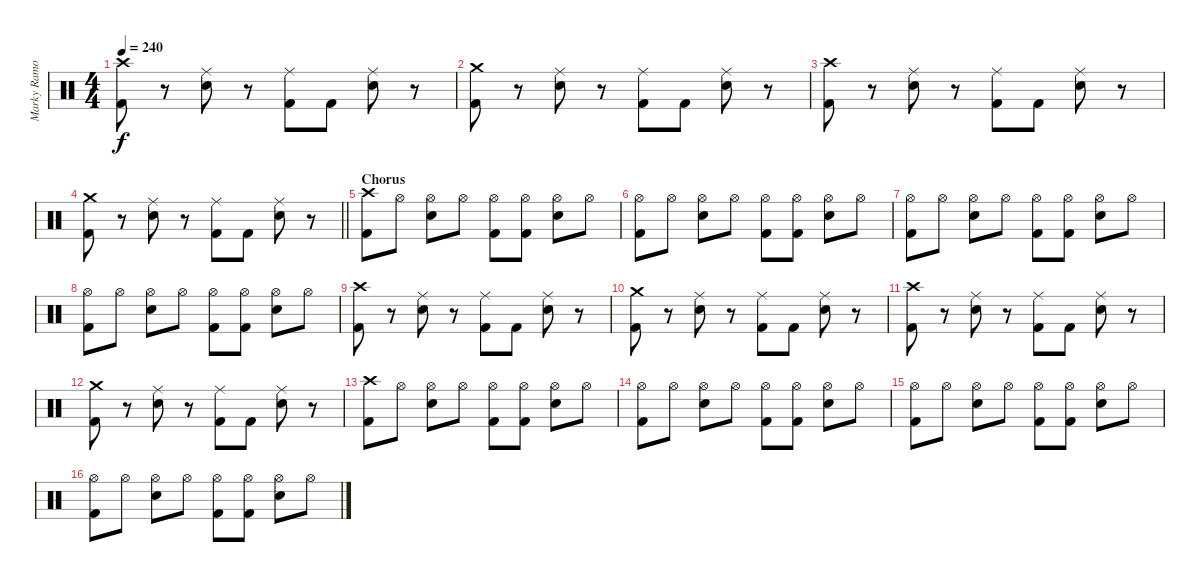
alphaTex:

\track ("Marky Ramone" "Marky Ramo") {instrument percussion}
\staff {score}
\articulation defaults
\ts (4 4)
\tempo 240
\clef neutral
\ks c
("Kick (hit) 2" "Crash high (hit)").8{dy f} r.8 ("Electric Snare (hit)" "Ride (middle)").8 r.8 ("Kick (hit) 2" "Ride (middle)").8 "Kick (hit) 2".8 ("Electric Snare (hit)" "Ride (middle)").8 r.8 |
("Kick (hit) 2" "Crash medium (hit)").8 r.8 ("Electric Snare (hit)" "Ride (middle)").8 r.8 ("Kick (hit) 2" "Ride (middle)").8 "Kick (hit) 2".8 ("Electric Snare (hit)" "Ride (middle)").8 r.8 |
("Kick (hit) 2" "Crash high (hit)").8 r.8 ("Electric Snare (hit)" "Ride (middle)").8 r.8 ("Kick (hit) 2" "Ride (middle)").8 "Kick (hit) 2".8 ("Electric Snare (hit)" "Ride (middle)").8 r.8 |
\barLineRight lightlight
("Kick (hit) 2" "Crash medium (hit)").8 r.8 ("Electric Snare (hit)" "Ride (middle)").8 r.8 ("Kick (hit) 2" "Ride (middle)").8 "Kick (hit) 2".8 ("Electric Snare (hit)" "Ride (middle)").8 r.8 |
\section ("" "Chorus")
("Kick (hit) 2" "Crash high (hit)").8 "Hi-Hat (open)".8 ("Electric Snare (hit)" "Hi-Hat (open)").8 "Hi-Hat (open)".8 ("Kick (hit) 2" "Hi-Hat (open)").8 ("Kick (hit) 2" "Hi-Hat (open)").8 ("Electric Snare (hit)" "Hi-Hat (open)").8 "Hi-Hat (open)".8 |
("Kick (hit) 2" "Hi-Hat (open)").8 "Hi-Hat (open)".8 ("Electric Snare (hit)" "Hi-Hat (open)").8 "Hi-Hat (open)".8 ("Kick (hit) 2" "Hi-Hat (open)").8 ("Kick (hit) 2" "Hi-Hat (open)").8 ("Electric Snare (hit)" "Hi-Hat (open)").8 "Hi-Hat (open)".8 |
("Kick (hit) 2" "Hi-Hat (open)").8 "Hi-Hat (open)".8 ("Electric Snare (hit)" "Hi-Hat (open)").8 "Hi-Hat (open)".8 ("Kick (hit) 2" "Hi-Hat (open)").8 ("Kick (hit) 2" "Hi-Hat (open)").8 ("Electric Snare (hit)" "Hi-Hat (open)").8 "Hi-Hat (open)".8 |
("Kick (hit) 2" "Hi-Hat (open)").8 "Hi-Hat (open)".8 ("Electric Snare (hit)" "Hi-Hat (open)").8 "Hi-Hat (open)".8 ("Kick (hit) 2" "Hi-Hat (open)").8 ("Kick (hit) 2" "Hi-Hat (open)").8 ("Electric Snare (hit)" "Hi-Hat (open)").8 "Hi-Hat (open)".8 |
("Kick (hit) 2" "Crash high (hit)").8 r.8 ("Electric Snare (hit)" "Ride (middle)").8 r.8 ("Kick (hit) 2" "Ride (middle)").8 "Kick (hit) 2".8 ("Electric Snare (hit)" "Ride (middle)").8 r.8 |
("Kick (hit) 2" "Crash medium (hit)").8 r.8 ("Electric Snare (hit)" "Ride (middle)").8 r.8 ("Kick (hit) 2" "Ride (middle)").8 "Kick (hit) 2".8 ("Electric Snare (hit)" "Ride (middle)").8 r.8 |
("Kick (hit) 2" "Crash high (hit)").8 r.8 ("Electric Snare (hit)" "Ride (middle)").8 r.8 ("Kick (hit) 2" "Ride (middle)").8 "Kick (hit) 2".8 ("Electric Snare (hit)" "Ride (middle)").8 r.8 |
("Kick (hit) 2" "Crash medium (hit)").8 r.8 ("Electric Snare (hit)" "Ride (middle)").8 r.8 ("Kick (hit) 2" "Ride (middle)").8 "Kick (hit) 2".8 ("Electric Snare (hit)" "Ride (middle)").8 r.8 |
("Kick (hit) 2" "Crash high (hit)").8 "Hi-Hat (open)".8 ("Electric Snare (hit)" "Hi-Hat (open)").8 "Hi-Hat (open)".8 ("Kick (hit) 2" "Hi-Hat (open)").8 ("Kick (hit) 2" "Hi-Hat (open)").8 ("Electric Snare (hit)" "Hi-Hat (open)").8 "Hi-Hat (open)".8 |
("Kick (hit) 2" "Hi-Hat (open)").8 "Hi-Hat (open)".8 ("Electric Snare (hit)" "Hi-Hat (open)").8 "Hi-Hat (open)".8 ("Kick (hit) 2" "Hi-Hat (open)").8 ("Kick (hit) 2" "Hi-Hat (open)").8 ("Electric Snare (hit)" "Hi-Hat (open)").8 "Hi-Hat (open)".8 |
("Kick (hit) 2" "Hi-Hat (open)").8 "Hi-Hat (open)".8 ("Electric Snare (hit)" "Hi-Hat (open)").8 "Hi-Hat (open)".8 ("Kick (hit) 2" "Hi-Hat (open)").8 ("Kick (hit) 2" "Hi-Hat (open)").8 ("Electric Snare (hit)" "Hi-Hat (open)").8 "Hi-Hat (open)".8 |
("Kick (hit) 2" "Hi-Hat (open)").8 "Hi-Hat (open)".8 ("Electric Snare (hit)" "Hi-Hat (open)").8 "Hi-Hat (open)".8 ("Kick (hit) 2" "Hi-Hat (open)").8 ("Kick (hit) 2" "Hi-Hat (open)").8 ("Electric Snare (hit)" "Hi-Hat (open)").8 "Hi-Hat (open)".8
